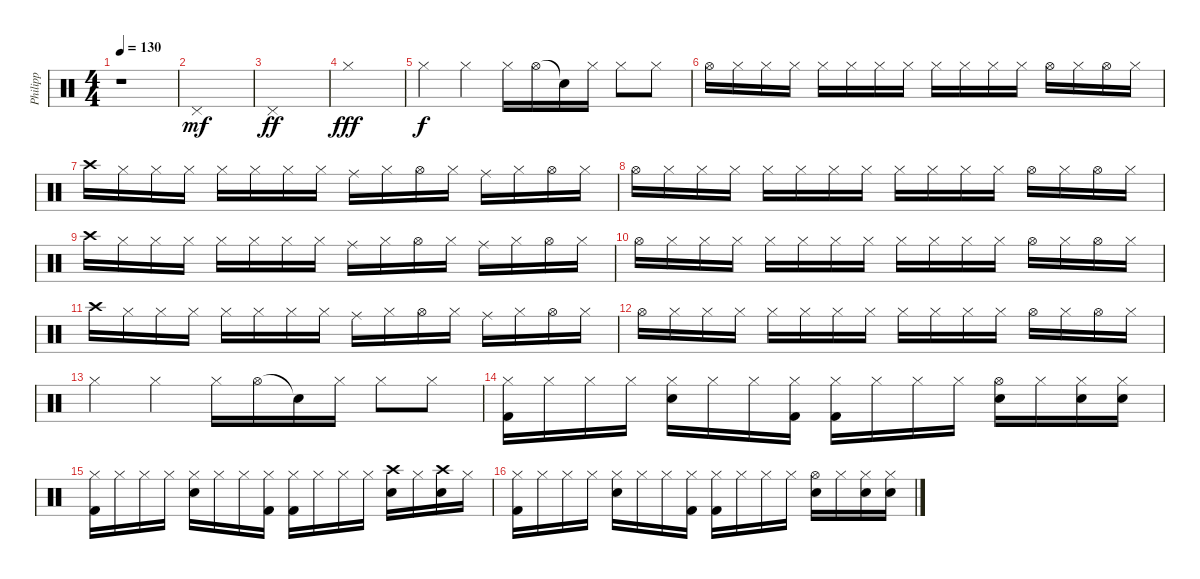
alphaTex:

\track ("Philipp" "Philipp") {instrument percussion}
\staff {score}
\articulation defaults
\ts (4 4)
\tempo 130
\clef neutral
\ks c
r.1{dy f} |
"Pedal Hi-Hat (hit)".1{dy mf} |
"Pedal Hi-Hat (hit)".1{dy ff} |
"Hi-Hat (closed)".1{dy fff} |
"Hi-Hat (closed)".4{dy f} "Hi-Hat (closed)".4 "Hi-Hat (closed)".16 "Hi-Hat (open)".16 "Snare (hit)"{t}.16 "Hi-Hat (closed)".16 "Hi-Hat (closed)".8 "Hi-Hat (closed)".8 |
"Hi-Hat (open)".16 "Hi-Hat (closed)".16 "Hi-Hat (closed)".16 "Hi-Hat (closed)".16 "Hi-Hat (closed)".16 "Hi-Hat (closed)".16 "Hi-Hat (closed)".16 "Hi-Hat (closed)".16 "Hi-Hat (closed)".16 "Hi-Hat (closed)".16 "Hi-Hat (closed)".16 "Hi-Hat (closed)".16 "Hi-Hat (open)".16 "Hi-Hat (closed)".16 "Hi-Hat (open)".16 "Hi-Hat (closed)".16 |
"Crash high (hit)".16 "Hi-Hat (closed)".16 "Hi-Hat (closed)".16 "Hi-Hat (closed)".16 "Hi-Hat (closed)".16 "Hi-Hat (closed)".16 "Hi-Hat (closed)".16 "Hi-Hat (closed)".16 "Ride (middle)".16 "Hi-Hat (closed)".16 "Hi-Hat (open)".16 "Hi-Hat (closed)".16 "Ride (middle)".16 "Hi-Hat (closed)".16 "Hi-Hat (open)".16 "Hi-Hat (closed)".16 |
"Hi-Hat (open)".16 "Hi-Hat (closed)".16 "Hi-Hat (closed)".16 "Hi-Hat (closed)".16 "Hi-Hat (closed)".16 "Hi-Hat (closed)".16 "Hi-Hat (closed)".16 "Hi-Hat (closed)".16 "Hi-Hat (closed)".16 "Hi-Hat (closed)".16 "Hi-Hat (closed)".16 "Hi-Hat (closed)".16 "Hi-Hat (open)".16 "Hi-Hat (closed)".16 "Hi-Hat (open)".16 "Hi-Hat (closed)".16 |
"Crash high (hit)".16 "Hi-Hat (closed)".16 "Hi-Hat (closed)".16 "Hi-Hat (closed)".16 "Hi-Hat (closed)".16 "Hi-Hat (closed)".16 "Hi-Hat (closed)".16 "Hi-Hat (closed)".16 "Ride (middle)".16 "Hi-Hat (closed)".16 "Hi-Hat (open)".16 "Hi-Hat (closed)".16 "Ride (middle)".16 "Hi-Hat (closed)".16 "Hi-Hat (open)".16 "Hi-Hat (closed)".16 |
"Hi-Hat (open)".16 "Hi-Hat (closed)".16 "Hi-Hat (closed)".16 "Hi-Hat (closed)".16 "Hi-Hat (closed)".16 "Hi-Hat (closed)".16 "Hi-Hat (closed)".16 "Hi-Hat (closed)".16 "Hi-Hat (closed)".16 "Hi-Hat (closed)".16 "Hi-Hat (closed)".16 "Hi-Hat (closed)".16 "Hi-Hat (open)".16 "Hi-Hat (closed)".16 "Hi-Hat (open)".16 "Hi-Hat (closed)".16 |
"Crash high (hit)".16 "Hi-Hat (closed)".16 "Hi-Hat (closed)".16 "Hi-Hat (closed)".16 "Hi-Hat (closed)".16 "Hi-Hat (closed)".16 "Hi-Hat (closed)".16 "Hi-Hat (closed)".16 "Ride (middle)".16 "Hi-Hat (closed)".16 "Hi-Hat (open)".16 "Hi-Hat (closed)".16 "Ride (middle)".16 "Hi-Hat (closed)".16 "Hi-Hat (open)".16 "Hi-Hat (closed)".16 |
"Hi-Hat (open)".16 "Hi-Hat (closed)".16 "Hi-Hat (closed)".16 "Hi-Hat (closed)".16 "Hi-Hat (closed)".16 "Hi-Hat (closed)".16 "Hi-Hat (closed)".16 "Hi-Hat (closed)".16 "Hi-Hat (closed)".16 "Hi-Hat (closed)".16 "Hi-Hat (closed)".16 "Hi-Hat (closed)".16 "Hi-Hat (open)".16 "Hi-Hat (closed)".16 "Hi-Hat (open)".16 "Hi-Hat (closed)".16 |
"Hi-Hat (closed)".4 "Hi-Hat (closed)".4 "Hi-Hat (closed)".16 "Hi-Hat (open)".16 "Snare (hit)"{t}.16 "Hi-Hat (closed)".16 "Hi-Hat (closed)".8 "Hi-Hat (closed)".8 |
("Hi-Hat (closed)" "Kick (hit) 2").16 "Hi-Hat (closed)".16 "Hi-Hat (closed)".16 "Hi-Hat (closed)".16 ("Hi-Hat (closed)" "Electric Snare (hit)").16 "Hi-Hat (closed)".16 "Hi-Hat (closed)".16 ("Hi-Hat (closed)" "Kick (hit) 2").16 ("Hi-Hat (closed)" "Kick (hit) 2").16 "Hi-Hat (closed)".16 "Hi-Hat (closed)".16 "Hi-Hat (closed)".16 ("Hi-Hat (open)" "Electric Snare (hit)").16 "Hi-Hat (closed)".16 ("Hi-Hat (closed)" "Electric Snare (hit)").16 ("Hi-Hat (closed)" "Electric Snare (hit)").16 |
("Hi-Hat (closed)" "Kick (hit) 2").16 "Hi-Hat (closed)".16 "Hi-Hat (closed)".16 "Hi-Hat (closed)".16 ("Hi-Hat (closed)" "Electric Snare (hit)").16 "Hi-Hat (closed)".16 "Hi-Hat (closed)".16 ("Hi-Hat (closed)" "Kick (hit) 2").16 ("Hi-Hat (closed)" "Kick (hit) 2").16 "Hi-Hat (closed)".16 "Hi-Hat (closed)".16 "Hi-Hat (closed)".16 ("Crash high (hit)" "Electric Snare (hit)").16 "Hi-Hat (closed)".16 ("Crash high (hit)" "Electric Snare (hit)").16 "Hi-Hat (closed)".16 |
("Hi-Hat (closed)" "Kick (hit) 2").16 "Hi-Hat (closed)".16 "Hi-Hat (closed)".16 "Hi-Hat (closed)".16 ("Hi-Hat (closed)" "Electric Snare (hit)").16 "Hi-Hat (closed)".16 "Hi-Hat (closed)".16 ("Hi-Hat (closed)" "Kick (hit) 2").16 ("Hi-Hat (closed)" "Kick (hit) 2").16 "Hi-Hat (closed)".16 "Hi-Hat (closed)".16 "Hi-Hat (closed)".16 ("Hi-Hat (open)" "Electric Snare (hit)").16 "Hi-Hat (closed)".16 ("Hi-Hat (closed)" "Electric Snare (hit)").16 ("Hi-Hat (closed)" "Electric Snare (hit)").16
